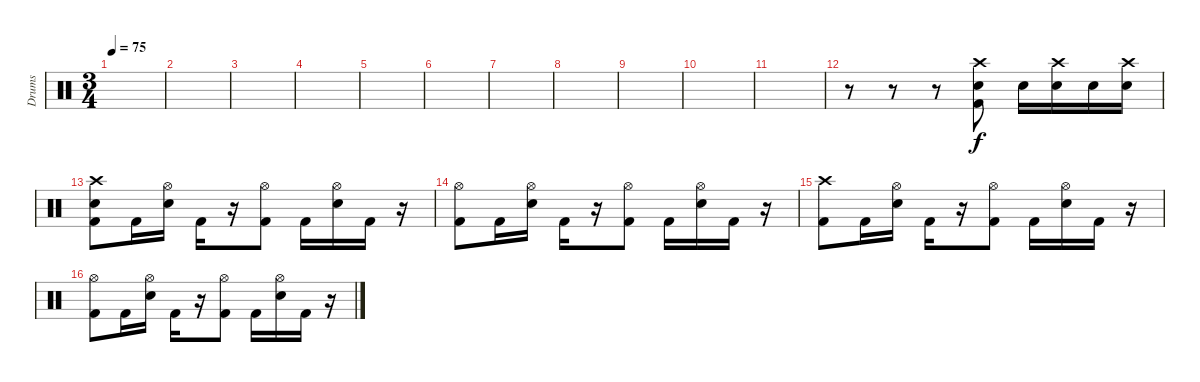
\track ("Drums" "Drums") {instrument percussion}
\staff {score}
\articulation defaults
\ts (3 4)
\tempo 75
\clef neutral
\ks c
|
|
|
|
|
|
|
|
|
|
|
r.8 r.8 r.8 ("Crash high (hit)" "Snare (hit) 2" "Kick (hit) 2").8 "Snare (hit) 2".16 ("Crash high (hit)" "Snare (hit) 2").16 "Snare (hit) 2".16 ("Crash high (hit)" "Snare (hit) 2").16 |
("Crash high (hit)" "Snare (hit) 2" "Kick (hit) 2").8 "Kick (hit) 2".16 ("Hi-Hat (open)" "Snare (hit) 2").16 "Kick (hit) 2".16 r.16 ("Hi-Hat (open)" "Kick (hit) 2").8 "Kick (hit) 2".16 ("Hi-Hat (open)" "Snare (hit) 2").16 "Kick (hit) 2".16 r.16 |
("Hi-Hat (open)" "Kick (hit) 2").8 "Kick (hit) 2".16 ("Hi-Hat (open)" "Snare (hit) 2").16 "Kick (hit) 2".16 r.16 ("Hi-Hat (open)" "Kick (hit) 2").8 "Kick (hit) 2".16 ("Hi-Hat (open)" "Snare (hit) 2").16 "Kick (hit) 2".16 r.16 |
("Crash high (hit)" "Kick (hit) 2").8 "Kick (hit) 2".16 ("Hi-Hat (open)" "Snare (hit) 2").16 "Kick (hit) 2".16 r.16 ("Hi-Hat (open)" "Kick (hit) 2").8 "Kick (hit) 2".16 ("Hi-Hat (open)" "Snare (hit) 2").16 "Kick (hit) 2".16 r.16 |
("Hi-Hat (open)" "Kick (hit) 2").8 "Kick (hit) 2".16 ("Hi-Hat (open)" "Snare (hit) 2").16 "Kick (hit) 2".16 r.16 ("Hi-Hat (open)" "Kick (hit) 2").8 "Kick (hit) 2".16 ("Hi-Hat (open)" "Snare (hit) 2").16 "Kick (hit) 2".16 r.16
